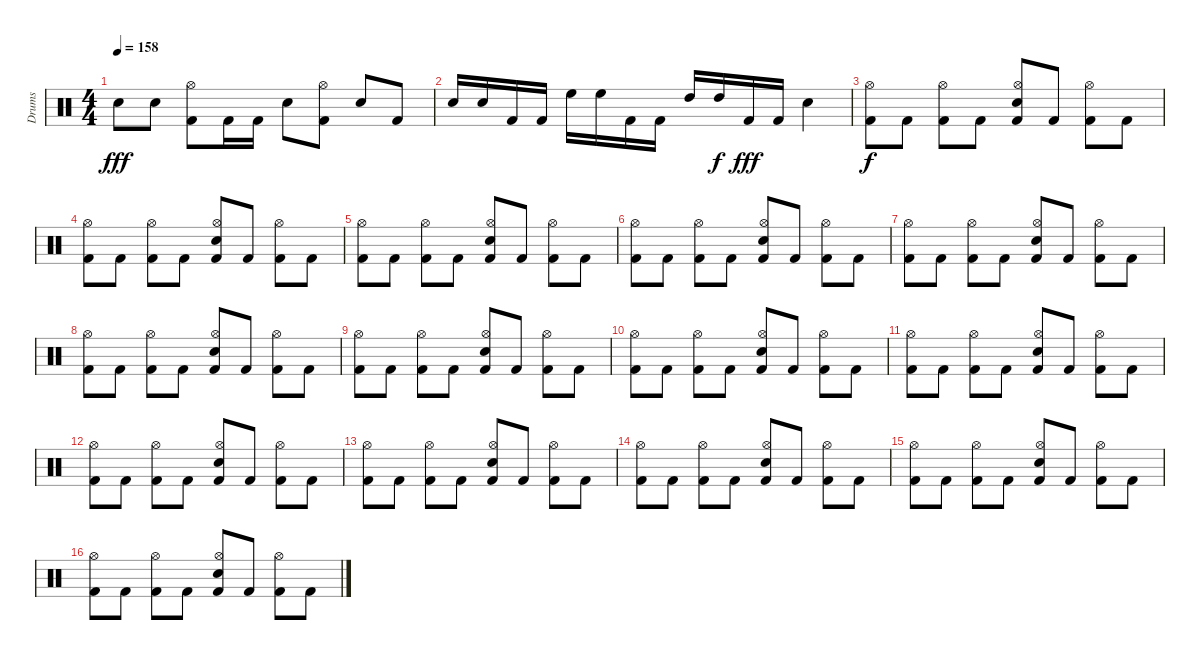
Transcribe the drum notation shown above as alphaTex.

\track ("Drums" "Drums") {instrument percussion}
\staff {score}
\articulation defaults
\ts (4 4)
\tempo 158
\clef neutral
\ks c "Snare (hit) 2".8{dy fff} "Snare (hit) 2".8
("Hi-Hat (open)" "Kick (hit) 2").8 "Kick (hit) 2".16 "Kick (hit) 2".16 "Snare (hit) 2".8 ("Hi-Hat (open)" "Kick (hit) 2").8 "Snare (hit) 2".8 "Kick (hit) 2".8 |
"Snare (hit) 2".16 "Snare (hit) 2".16 "Kick (hit) 2".16 "Kick (hit) 2".16 "High Floor Tom (hit)".16 "High Floor Tom (hit)".16 "Kick (hit) 2".16 "Kick (hit) 2".16 "High Tom (hit)".16 "High Tom (hit)".16{dy f} "Kick (hit) 2".16{dy fff} "Kick (hit) 2".16 "Snare (hit) 2".4 |
("Hi-Hat (open)" "Kick (hit) 2").8{dy f} "Kick (hit) 2".8 ("Hi-Hat (open)" "Kick (hit) 2").8 "Kick (hit) 2".8 ("Hi-Hat (open)" "Snare (hit) 2" "Kick (hit) 2").8 "Kick (hit) 2".8 ("Hi-Hat (open)" "Kick (hit) 2").8 "Kick (hit) 2".8 |
("Hi-Hat (open)" "Kick (hit) 2").8 "Kick (hit) 2".8 ("Hi-Hat (open)" "Kick (hit) 2").8 "Kick (hit) 2".8 ("Hi-Hat (open)" "Snare (hit) 2" "Kick (hit) 2").8 "Kick (hit) 2".8 ("Hi-Hat (open)" "Kick (hit) 2").8 "Kick (hit) 2".8 |
("Hi-Hat (open)" "Kick (hit) 2").8 "Kick (hit) 2".8 ("Hi-Hat (open)" "Kick (hit) 2").8 "Kick (hit) 2".8 ("Hi-Hat (open)" "Snare (hit) 2" "Kick (hit) 2").8 "Kick (hit) 2".8 ("Hi-Hat (open)" "Kick (hit) 2").8 "Kick (hit) 2".8 |
("Hi-Hat (open)" "Kick (hit) 2").8 "Kick (hit) 2".8 ("Hi-Hat (open)" "Kick (hit) 2").8 "Kick (hit) 2".8 ("Hi-Hat (open)" "Snare (hit) 2" "Kick (hit) 2").8 "Kick (hit) 2".8 ("Hi-Hat (open)" "Kick (hit) 2").8 "Kick (hit) 2".8 |
("Hi-Hat (open)" "Kick (hit) 2").8 "Kick (hit) 2".8 ("Hi-Hat (open)" "Kick (hit) 2").8 "Kick (hit) 2".8 ("Hi-Hat (open)" "Snare (hit) 2" "Kick (hit) 2").8 "Kick (hit) 2".8 ("Hi-Hat (open)" "Kick (hit) 2").8 "Kick (hit) 2".8 |
("Hi-Hat (open)" "Kick (hit) 2").8 "Kick (hit) 2".8 ("Hi-Hat (open)" "Kick (hit) 2").8 "Kick (hit) 2".8 ("Hi-Hat (open)" "Snare (hit) 2" "Kick (hit) 2").8 "Kick (hit) 2".8 ("Hi-Hat (open)" "Kick (hit) 2").8 "Kick (hit) 2".8 |
("Hi-Hat (open)" "Kick (hit) 2").8 "Kick (hit) 2".8 ("Hi-Hat (open)" "Kick (hit) 2").8 "Kick (hit) 2".8 ("Hi-Hat (open)" "Snare (hit) 2" "Kick (hit) 2").8 "Kick (hit) 2".8 ("Hi-Hat (open)" "Kick (hit) 2").8 "Kick (hit) 2".8 |
("Hi-Hat (open)" "Kick (hit) 2").8 "Kick (hit) 2".8 ("Hi-Hat (open)" "Kick (hit) 2").8 "Kick (hit) 2".8 ("Hi-Hat (open)" "Snare (hit) 2" "Kick (hit) 2").8 "Kick (hit) 2".8 ("Hi-Hat (open)" "Kick (hit) 2").8 "Kick (hit) 2".8 |
("Hi-Hat (open)" "Kick (hit) 2").8 "Kick (hit) 2".8 ("Hi-Hat (open)" "Kick (hit) 2").8 "Kick (hit) 2".8 ("Hi-Hat (open)" "Snare (hit) 2" "Kick (hit) 2").8 "Kick (hit) 2".8 ("Hi-Hat (open)" "Kick (hit) 2").8 "Kick (hit) 2".8 |
("Hi-Hat (open)" "Kick (hit) 2").8 "Kick (hit) 2".8 ("Hi-Hat (open)" "Kick (hit) 2").8 "Kick (hit) 2".8 ("Hi-Hat (open)" "Snare (hit) 2" "Kick (hit) 2").8 "Kick (hit) 2".8 ("Hi-Hat (open)" "Kick (hit) 2").8 "Kick (hit) 2".8 |
("Hi-Hat (open)" "Kick (hit) 2").8 "Kick (hit) 2".8 ("Hi-Hat (open)" "Kick (hit) 2").8 "Kick (hit) 2".8 ("Hi-Hat (open)" "Snare (hit) 2" "Kick (hit) 2").8 "Kick (hit) 2".8 ("Hi-Hat (open)" "Kick (hit) 2").8 "Kick (hit) 2".8 |
("Hi-Hat (open)" "Kick (hit) 2").8 "Kick (hit) 2".8 ("Hi-Hat (open)" "Kick (hit) 2").8 "Kick (hit) 2".8 ("Hi-Hat (open)" "Snare (hit) 2" "Kick (hit) 2").8 "Kick (hit) 2".8 ("Hi-Hat (open)" "Kick (hit) 2").8 "Kick (hit) 2".8 |
("Hi-Hat (open)" "Kick (hit) 2").8 "Kick (hit) 2".8 ("Hi-Hat (open)" "Kick (hit) 2").8 "Kick (hit) 2".8 ("Hi-Hat (open)" "Snare (hit) 2" "Kick (hit) 2").8 "Kick (hit) 2".8 ("Hi-Hat (open)" "Kick (hit) 2").8 "Kick (hit) 2".8 |
("Hi-Hat (open)" "Kick (hit) 2").8 "Kick (hit) 2".8 ("Hi-Hat (open)" "Kick (hit) 2").8 "Kick (hit) 2".8 ("Hi-Hat (open)" "Snare (hit) 2" "Kick (hit) 2").8 "Kick (hit) 2".8 ("Hi-Hat (open)" "Kick (hit) 2").8 "Kick (hit) 2".8
